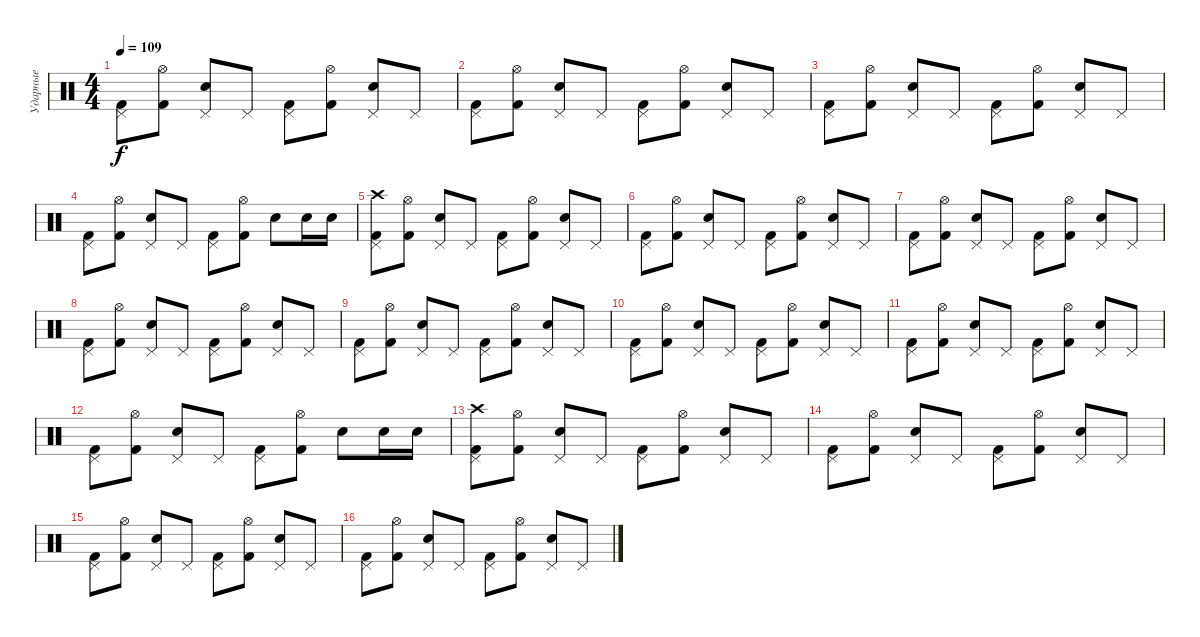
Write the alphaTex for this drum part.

\track ("Ударные" "Ударные") {instrument percussion}
\staff {score}
\articulation defaults
\ts (4 4)
\tempo 109
\clef neutral
\ks c
("Kick (hit) 2" "Pedal Hi-Hat (hit)").8{dy f} ("Kick (hit) 2" "Hi-Hat (open)").8 ("Pedal Hi-Hat (hit)" "Snare (hit) 2").8 "Pedal Hi-Hat (hit)".8 ("Kick (hit) 2" "Pedal Hi-Hat (hit)").8 ("Kick (hit) 2" "Hi-Hat (open)").8 ("Pedal Hi-Hat (hit)" "Snare (hit) 2").8 "Pedal Hi-Hat (hit)".8 |
("Kick (hit) 2" "Pedal Hi-Hat (hit)").8 ("Kick (hit) 2" "Hi-Hat (open)").8 ("Pedal Hi-Hat (hit)" "Snare (hit) 2").8 "Pedal Hi-Hat (hit)".8 ("Kick (hit) 2" "Pedal Hi-Hat (hit)").8 ("Kick (hit) 2" "Hi-Hat (open)").8 ("Pedal Hi-Hat (hit)" "Snare (hit) 2").8 "Pedal Hi-Hat (hit)".8 |
("Kick (hit) 2" "Pedal Hi-Hat (hit)").8 ("Kick (hit) 2" "Hi-Hat (open)").8 ("Pedal Hi-Hat (hit)" "Snare (hit) 2").8 "Pedal Hi-Hat (hit)".8 ("Kick (hit) 2" "Pedal Hi-Hat (hit)").8 ("Kick (hit) 2" "Hi-Hat (open)").8 ("Pedal Hi-Hat (hit)" "Snare (hit) 2").8 "Pedal Hi-Hat (hit)".8 |
("Kick (hit) 2" "Pedal Hi-Hat (hit)").8 ("Kick (hit) 2" "Hi-Hat (open)").8 ("Pedal Hi-Hat (hit)" "Snare (hit) 2").8 "Pedal Hi-Hat (hit)".8 ("Kick (hit) 2" "Pedal Hi-Hat (hit)").8 ("Kick (hit) 2" "Hi-Hat (open)").8 "Snare (hit) 2".8 "Snare (hit) 2".16 "Snare (hit) 2".16 |
("Kick (hit) 2" "Pedal Hi-Hat (hit)" "Crash high (hit)").8 ("Kick (hit) 2" "Hi-Hat (open)").8 ("Pedal Hi-Hat (hit)" "Snare (hit) 2").8 "Pedal Hi-Hat (hit)".8 ("Kick (hit) 2" "Pedal Hi-Hat (hit)").8 ("Kick (hit) 2" "Hi-Hat (open)").8 ("Pedal Hi-Hat (hit)" "Snare (hit) 2").8 "Pedal Hi-Hat (hit)".8 |
("Kick (hit) 2" "Pedal Hi-Hat (hit)").8 ("Kick (hit) 2" "Hi-Hat (open)").8 ("Pedal Hi-Hat (hit)" "Snare (hit) 2").8 "Pedal Hi-Hat (hit)".8 ("Kick (hit) 2" "Pedal Hi-Hat (hit)").8 ("Kick (hit) 2" "Hi-Hat (open)").8 ("Pedal Hi-Hat (hit)" "Snare (hit) 2").8 "Pedal Hi-Hat (hit)".8 |
("Kick (hit) 2" "Pedal Hi-Hat (hit)").8 ("Kick (hit) 2" "Hi-Hat (open)").8 ("Pedal Hi-Hat (hit)" "Snare (hit) 2").8 "Pedal Hi-Hat (hit)".8 ("Kick (hit) 2" "Pedal Hi-Hat (hit)").8 ("Kick (hit) 2" "Hi-Hat (open)").8 ("Pedal Hi-Hat (hit)" "Snare (hit) 2").8 "Pedal Hi-Hat (hit)".8 |
("Kick (hit) 2" "Pedal Hi-Hat (hit)").8 ("Kick (hit) 2" "Hi-Hat (open)").8 ("Pedal Hi-Hat (hit)" "Snare (hit) 2").8 "Pedal Hi-Hat (hit)".8 ("Kick (hit) 2" "Pedal Hi-Hat (hit)").8 ("Kick (hit) 2" "Hi-Hat (open)").8 ("Pedal Hi-Hat (hit)" "Snare (hit) 2").8 "Pedal Hi-Hat (hit)".8 |
("Kick (hit) 2" "Pedal Hi-Hat (hit)").8 ("Kick (hit) 2" "Hi-Hat (open)").8 ("Pedal Hi-Hat (hit)" "Snare (hit) 2").8 "Pedal Hi-Hat (hit)".8 ("Kick (hit) 2" "Pedal Hi-Hat (hit)").8 ("Kick (hit) 2" "Hi-Hat (open)").8 ("Pedal Hi-Hat (hit)" "Snare (hit) 2").8 "Pedal Hi-Hat (hit)".8 |
("Kick (hit) 2" "Pedal Hi-Hat (hit)").8 ("Kick (hit) 2" "Hi-Hat (open)").8 ("Pedal Hi-Hat (hit)" "Snare (hit) 2").8 "Pedal Hi-Hat (hit)".8 ("Kick (hit) 2" "Pedal Hi-Hat (hit)").8 ("Kick (hit) 2" "Hi-Hat (open)").8 ("Pedal Hi-Hat (hit)" "Snare (hit) 2").8 "Pedal Hi-Hat (hit)".8 |
("Kick (hit) 2" "Pedal Hi-Hat (hit)").8 ("Kick (hit) 2" "Hi-Hat (open)").8 ("Pedal Hi-Hat (hit)" "Snare (hit) 2").8 "Pedal Hi-Hat (hit)".8 ("Kick (hit) 2" "Pedal Hi-Hat (hit)").8 ("Kick (hit) 2" "Hi-Hat (open)").8 ("Pedal Hi-Hat (hit)" "Snare (hit) 2").8 "Pedal Hi-Hat (hit)".8 |
("Kick (hit) 2" "Pedal Hi-Hat (hit)").8 ("Kick (hit) 2" "Hi-Hat (open)").8 ("Pedal Hi-Hat (hit)" "Snare (hit) 2").8 "Pedal Hi-Hat (hit)".8 ("Kick (hit) 2" "Pedal Hi-Hat (hit)").8 ("Kick (hit) 2" "Hi-Hat (open)").8 "Snare (hit) 2".8 "Snare (hit) 2".16 "Snare (hit) 2".16 |
("Kick (hit) 2" "Pedal Hi-Hat (hit)" "Crash high (hit)").8 ("Kick (hit) 2" "Hi-Hat (open)").8 ("Pedal Hi-Hat (hit)" "Snare (hit) 2").8 "Pedal Hi-Hat (hit)".8 ("Kick (hit) 2" "Pedal Hi-Hat (hit)").8 ("Kick (hit) 2" "Hi-Hat (open)").8 ("Pedal Hi-Hat (hit)" "Snare (hit) 2").8 "Pedal Hi-Hat (hit)".8 |
("Kick (hit) 2" "Pedal Hi-Hat (hit)").8 ("Kick (hit) 2" "Hi-Hat (open)").8 ("Pedal Hi-Hat (hit)" "Snare (hit) 2").8 "Pedal Hi-Hat (hit)".8 ("Kick (hit) 2" "Pedal Hi-Hat (hit)").8 ("Kick (hit) 2" "Hi-Hat (open)").8 ("Pedal Hi-Hat (hit)" "Snare (hit) 2").8 "Pedal Hi-Hat (hit)".8 |
("Kick (hit) 2" "Pedal Hi-Hat (hit)").8 ("Kick (hit) 2" "Hi-Hat (open)").8 ("Pedal Hi-Hat (hit)" "Snare (hit) 2").8 "Pedal Hi-Hat (hit)".8 ("Kick (hit) 2" "Pedal Hi-Hat (hit)").8 ("Kick (hit) 2" "Hi-Hat (open)").8 ("Pedal Hi-Hat (hit)" "Snare (hit) 2").8 "Pedal Hi-Hat (hit)".8 |
("Kick (hit) 2" "Pedal Hi-Hat (hit)").8 ("Kick (hit) 2" "Hi-Hat (open)").8 ("Pedal Hi-Hat (hit)" "Snare (hit) 2").8 "Pedal Hi-Hat (hit)".8 ("Kick (hit) 2" "Pedal Hi-Hat (hit)").8 ("Kick (hit) 2" "Hi-Hat (open)").8 ("Pedal Hi-Hat (hit)" "Snare (hit) 2").8 "Pedal Hi-Hat (hit)".8
